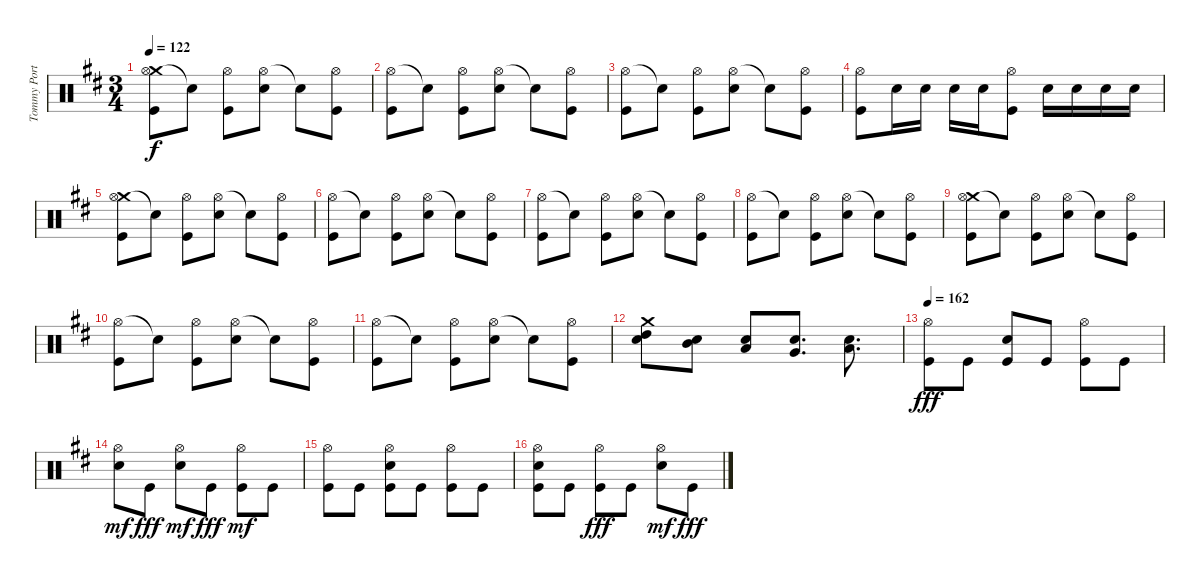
\track ("Tommy Portimo (Drums)" "Tommy Port") {instrument percussion}
\staff {score}
\articulation defaults
\ts (3 4)
\tempo 122
\clef neutral
\ks d
("Crash medium (hit)" "Hi-Hat (open)" "Kick (hit)").8{dy f} "Snare (hit)"{t}.8 ("Hi-Hat (open)" "Kick (hit)").8 ("Hi-Hat (open)" "Electric Snare (hit)").8 "Snare (hit)"{t}.8 ("Hi-Hat (open)" "Kick (hit)").8 |
("Hi-Hat (open)" "Kick (hit)").8 "Snare (hit)"{t}.8 ("Hi-Hat (open)" "Kick (hit)").8 ("Hi-Hat (open)" "Electric Snare (hit)").8 "Snare (hit)"{t}.8 ("Hi-Hat (open)" "Kick (hit)").8 |
("Hi-Hat (open)" "Kick (hit)").8 "Snare (hit)"{t}.8 ("Hi-Hat (open)" "Kick (hit)").8 ("Hi-Hat (open)" "Electric Snare (hit)").8 "Snare (hit)"{t}.8 ("Hi-Hat (open)" "Kick (hit)").8 |
("Hi-Hat (open)" "Kick (hit)").8 "Electric Snare (hit)".16 "Electric Snare (hit)".16 "Electric Snare (hit)".16 "Electric Snare (hit)".16 ("Hi-Hat (open)" "Kick (hit)").8 "Electric Snare (hit)".16 "Electric Snare (hit)".16 "Electric Snare (hit)".16 "Electric Snare (hit)".16 |
("Crash medium (hit)" "Hi-Hat (open)" "Kick (hit)").8 "Snare (hit)"{t}.8 ("Hi-Hat (open)" "Kick (hit)").8 ("Hi-Hat (open)" "Electric Snare (hit)").8 "Snare (hit)"{t}.8 ("Hi-Hat (open)" "Kick (hit)").8 |
("Hi-Hat (open)" "Kick (hit)").8 "Snare (hit)"{t}.8 ("Hi-Hat (open)" "Kick (hit)").8 ("Hi-Hat (open)" "Electric Snare (hit)").8 "Snare (hit)"{t}.8 ("Hi-Hat (open)" "Kick (hit)").8 |
("Hi-Hat (open)" "Kick (hit)").8 "Snare (hit)"{t}.8 ("Hi-Hat (open)" "Kick (hit)").8 ("Hi-Hat (open)" "Electric Snare (hit)").8 "Snare (hit)"{t}.8 ("Hi-Hat (open)" "Kick (hit)").8 |
("Hi-Hat (open)" "Kick (hit)").8 "Snare (hit)"{t}.8 ("Hi-Hat (open)" "Kick (hit)").8 ("Hi-Hat (open)" "Electric Snare (hit)").8 "Snare (hit)"{t}.8 ("Hi-Hat (open)" "Kick (hit)").8 |
("Crash medium (hit)" "Hi-Hat (open)" "Kick (hit)").8 "Snare (hit)"{t}.8 ("Hi-Hat (open)" "Kick (hit)").8 ("Hi-Hat (open)" "Electric Snare (hit)").8 "Snare (hit)"{t}.8 ("Hi-Hat (open)" "Kick (hit)").8 |
("Hi-Hat (open)" "Kick (hit)").8 "Snare (hit)"{t}.8 ("Hi-Hat (open)" "Kick (hit)").8 ("Hi-Hat (open)" "Electric Snare (hit)").8 "Snare (hit)"{t}.8 ("Hi-Hat (open)" "Kick (hit)").8 |
("Hi-Hat (open)" "Kick (hit)").8 "Snare (hit)"{t}.8 ("Hi-Hat (open)" "Kick (hit)").8 ("Hi-Hat (open)" "Electric Snare (hit)").8 "Snare (hit)"{t}.8 ("Hi-Hat (open)" "Kick (hit)").8 |
("Crash medium (hit)" "High Tom (hit)" "Electric Snare (hit)").8 ("Mid Tom (hit)" "Electric Snare (hit)").8 ("Low Tom (hit)" "Electric Snare (hit)").8 ("Very Low Tom (hit)" "Electric Snare (hit)").8{d} ("Low Floor Tom (hit)" "Electric Snare (hit)").8{d} |
\tempo 162
("Hi-Hat (open)" "Kick (hit)").8{dy fff} "Kick (hit)".8 ("Electric Snare (hit)" "Kick (hit)").8 "Kick (hit)".8 ("Hi-Hat (open)" "Kick (hit)").8 "Kick (hit)".8 |
("Hi-Hat (open)" "Electric Snare (hit)").8{dy mf} "Kick (hit)".8{dy fff} ("Hi-Hat (open)" "Electric Snare (hit)").8{dy mf} "Kick (hit)".8{dy fff} ("Kick (hit)" "Hi-Hat (open)").8{dy mf} "Kick (hit)".8 |
("Hi-Hat (open)" "Kick (hit)").8 "Kick (hit)".8 ("Electric Snare (hit)" "Hi-Hat (open)" "Kick (hit)").8 "Kick (hit)".8 ("Hi-Hat (open)" "Kick (hit)").8 "Kick (hit)".8 |
("Hi-Hat (open)" "Electric Snare (hit)" "Kick (hit)").8 "Kick (hit)".8 ("Hi-Hat (open)" "Kick (hit)").8{dy fff} "Kick (hit)".8 ("Hi-Hat (open)" "Electric Snare (hit)").8{dy mf} "Kick (hit)".8{dy fff}
